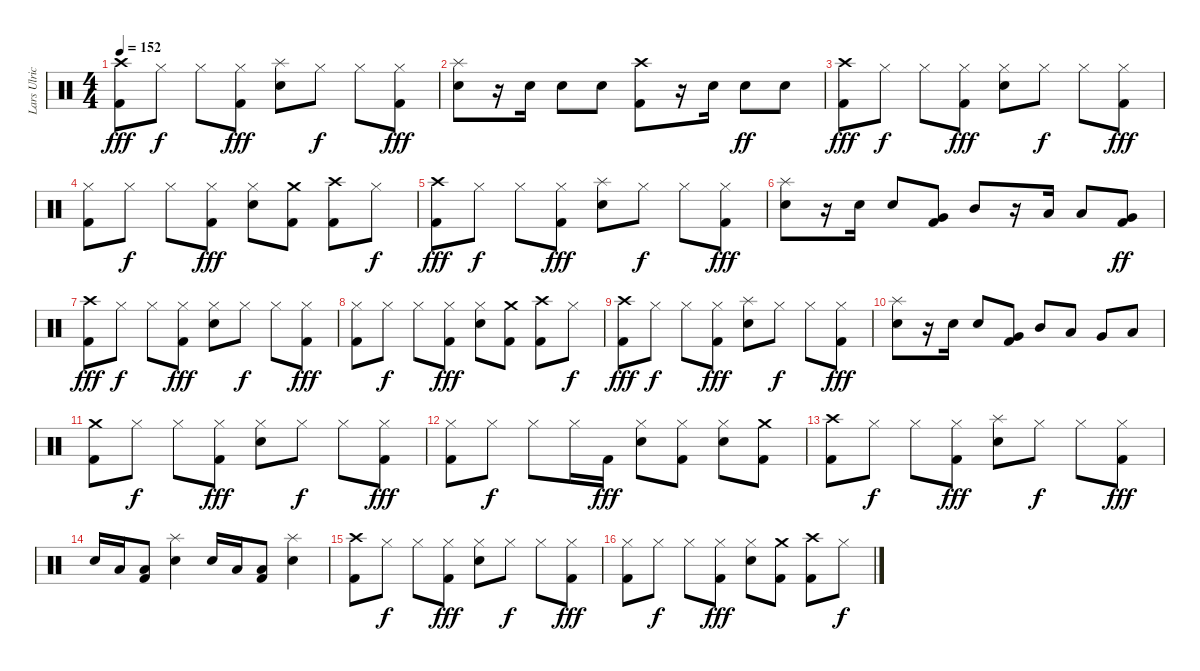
\track ("Lars Ulrich" "Lars Ulric") {instrument percussion}
\staff {score}
\articulation defaults
\ts (4 4)
\tempo 152
\clef neutral
\ks c
("Crash high (hit)" "Kick (hit) 2").8{dy fff} "Hi-Hat (closed)".8{dy f} "Hi-Hat (closed)".8 ("Hi-Hat (closed)" "Kick (hit) 2").8{dy fff} ("Splash (hit)" "Snare (hit) 2").8 "Hi-Hat (closed)".8{dy f} "Hi-Hat (closed)".8 ("Hi-Hat (closed)" "Kick (hit) 2").8{dy fff} |
("Splash (hit)" "Snare (hit) 2").8 r.16 "Snare (hit) 2".16 "Snare (hit) 2".8 "Snare (hit) 2".8 ("Crash high (hit)" "Kick (hit) 2").8 r.16 "Snare (hit) 2".16 "Snare (hit) 2".8{dy ff} "Snare (hit) 2".8 |
("Crash high (hit)" "Kick (hit) 2").8{dy fff} "Hi-Hat (closed)".8{dy f} "Hi-Hat (closed)".8 ("Hi-Hat (closed)" "Kick (hit) 2").8{dy fff} ("Hi-Hat (closed)" "Snare (hit) 2").8 "Hi-Hat (closed)".8{dy f} "Hi-Hat (closed)".8 ("Hi-Hat (closed)" "Kick (hit) 2").8{dy fff} |
("Hi-Hat (closed)" "Kick (hit) 2").8 "Hi-Hat (closed)".8{dy f} "Hi-Hat (closed)".8 ("Hi-Hat (closed)" "Kick (hit) 2").8{dy fff} ("Hi-Hat (closed)" "Snare (hit) 2").8 ("Crash medium (hit)" "Kick (hit) 2").8 ("Crash high (hit)" "Kick (hit) 2").8 "Hi-Hat (closed)".8{dy f} |
("Crash high (hit)" "Kick (hit) 2").8{dy fff} "Hi-Hat (closed)".8{dy f} "Hi-Hat (closed)".8 ("Hi-Hat (closed)" "Kick (hit) 2").8{dy fff} ("Splash (hit)" "Snare (hit) 2").8 "Hi-Hat (closed)".8{dy f} "Hi-Hat (closed)".8 ("Hi-Hat (closed)" "Kick (hit) 2").8{dy fff} |
("Splash (hit)" "Snare (hit) 2").8 r.16 "Snare (hit) 2".16 "Snare (hit) 2".8 ("Very Low Tom (hit)" "Kick (hit) 2").8 "Mid Tom (hit)".8 r.16 "Low Tom (hit)".16 "Low Tom (hit)".8 ("Very Low Tom (hit)" "Kick (hit) 2").8{dy ff} |
("Crash high (hit)" "Kick (hit) 2").8{dy fff} "Hi-Hat (closed)".8{dy f} "Hi-Hat (closed)".8 ("Hi-Hat (closed)" "Kick (hit) 2").8{dy fff} ("Hi-Hat (closed)" "Snare (hit) 2").8 "Hi-Hat (closed)".8{dy f} "Hi-Hat (closed)".8 ("Hi-Hat (closed)" "Kick (hit) 2").8{dy fff} |
("Hi-Hat (closed)" "Kick (hit) 2").8 "Hi-Hat (closed)".8{dy f} "Hi-Hat (closed)".8 ("Hi-Hat (closed)" "Kick (hit) 2").8{dy fff} ("Hi-Hat (closed)" "Snare (hit) 2").8 ("Crash medium (hit)" "Kick (hit) 2").8 ("Crash high (hit)" "Kick (hit) 2").8 "Hi-Hat (closed)".8{dy f} |
("Crash high (hit)" "Kick (hit) 2").8{dy fff} "Hi-Hat (closed)".8{dy f} "Hi-Hat (closed)".8 ("Hi-Hat (closed)" "Kick (hit) 2").8{dy fff} ("Splash (hit)" "Snare (hit) 2").8 "Hi-Hat (closed)".8{dy f} "Hi-Hat (closed)".8 ("Hi-Hat (closed)" "Kick (hit) 2").8{dy fff} |
("Splash (hit)" "Snare (hit) 2").8 r.16 "Snare (hit) 2".16 "Snare (hit) 2".8 ("Very Low Tom (hit)" "Kick (hit) 2").8 "Mid Tom (hit)".8 "Low Tom (hit)".8 "Very Low Tom (hit)".8 "Low Floor Tom (hit)".8 |
("Crash medium (hit)" "Kick (hit) 2").8 "Hi-Hat (closed)".8{dy f} "Hi-Hat (closed)".8 ("Hi-Hat (closed)" "Kick (hit) 2").8{dy fff} ("Hi-Hat (closed)" "Snare (hit) 2").8 "Hi-Hat (closed)".8{dy f} "Hi-Hat (closed)".8 ("Hi-Hat (closed)" "Kick (hit) 2").8{dy fff} |
("Hi-Hat (closed)" "Kick (hit) 2").8 "Hi-Hat (closed)".8{dy f} "Hi-Hat (closed)".8 "Hi-Hat (closed)".16 "Kick (hit) 2".16{dy fff} ("Hi-Hat (closed)" "Snare (hit) 2").8 ("Hi-Hat (closed)" "Kick (hit) 2").8 ("Hi-Hat (closed)" "Snare (hit) 2").8 ("Crash medium (hit)" "Kick (hit) 2").8 |
("Crash high (hit)" "Kick (hit) 2").8 "Hi-Hat (closed)".8{dy f} "Hi-Hat (closed)".8 ("Hi-Hat (closed)" "Kick (hit) 2").8{dy fff} ("Splash (hit)" "Snare (hit) 2").8 "Hi-Hat (closed)".8{dy f} "Hi-Hat (closed)".8 ("Hi-Hat (closed)" "Kick (hit) 2").8{dy fff} |
"Snare (hit) 2".16 "Low Tom (hit)".16 ("Low Tom (hit)" "Kick (hit) 2").8 ("Splash (hit)" "Snare (hit) 2").4 "Snare (hit) 2".16 "Low Tom (hit)".16 ("Low Tom (hit)" "Kick (hit) 2").8 ("Splash (hit)" "Snare (hit) 2").4 |
("Crash high (hit)" "Kick (hit) 2").8 "Hi-Hat (closed)".8{dy f} "Hi-Hat (closed)".8 ("Hi-Hat (closed)" "Kick (hit) 2").8{dy fff} ("Hi-Hat (closed)" "Snare (hit) 2").8 "Hi-Hat (closed)".8{dy f} "Hi-Hat (closed)".8 ("Hi-Hat (closed)" "Kick (hit) 2").8{dy fff} |
("Hi-Hat (closed)" "Kick (hit) 2").8 "Hi-Hat (closed)".8{dy f} "Hi-Hat (closed)".8 ("Hi-Hat (closed)" "Kick (hit) 2").8{dy fff} ("Hi-Hat (closed)" "Snare (hit) 2").8 ("Crash medium (hit)" "Kick (hit) 2").8 ("Crash high (hit)" "Kick (hit) 2").8 "Hi-Hat (closed)".8{dy f}
